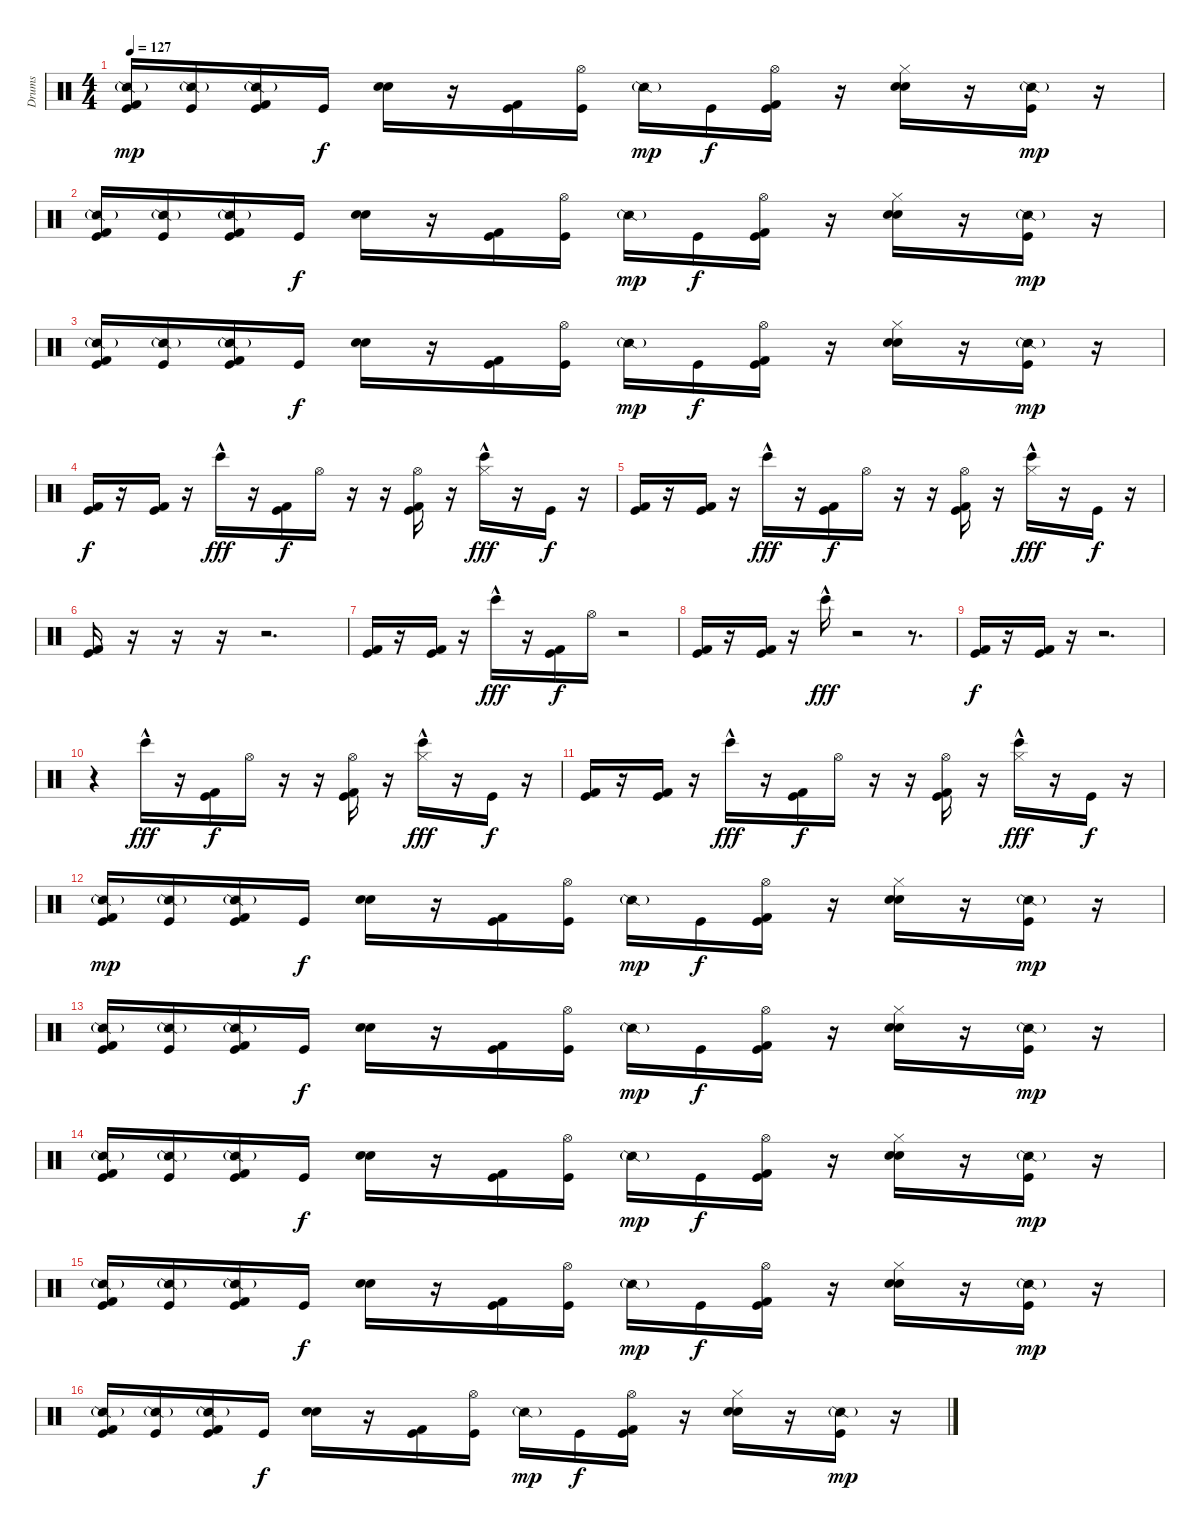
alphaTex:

\track ("Drums" "Drums") {instrument percussion}
\staff {score}
\articulation defaults
\ts (4 4)
\tempo 127
\clef neutral
\ks c
("Snare (side stick) 2"{g} "Kick (hit) 2" "Kick (hit)").16{dy mp} ("Snare (side stick) 2"{g} "Kick (hit)").16 ("Snare (side stick) 2"{g} "Kick (hit) 2" "Kick (hit)").16 "Kick (hit)".16{dy f} ("Snare (hit) 2" "Hand Clap (hit)").16 r.16 ("Kick (hit) 2" "Kick (hit)").16 ("Hi-Hat (open)" "Kick (hit)").16 "Snare (side stick) 2"{g}.16{dy mp} "Kick (hit)".16{dy f} ("Hi-Hat (open)" "Kick (hit) 2" "Kick (hit)").16 r.16 ("Hi-Hat (closed)" "Snare (hit) 2" "Hand Clap (hit)").16 r.16 ("Snare (side stick) 2"{g} "Kick (hit)").16{dy mp} r.16 |
("Snare (side stick) 2"{g} "Kick (hit) 2" "Kick (hit)").16 ("Snare (side stick) 2"{g} "Kick (hit)").16 ("Snare (side stick) 2"{g} "Kick (hit) 2" "Kick (hit)").16 "Kick (hit)".16{dy f} ("Snare (hit) 2" "Hand Clap (hit)").16 r.16 ("Kick (hit) 2" "Kick (hit)").16 ("Hi-Hat (open)" "Kick (hit)").16 "Snare (side stick) 2"{g}.16{dy mp} "Kick (hit)".16{dy f} ("Hi-Hat (open)" "Kick (hit) 2" "Kick (hit)").16 r.16 ("Hi-Hat (closed)" "Snare (hit) 2" "Hand Clap (hit)").16 r.16 ("Snare (side stick) 2"{g} "Kick (hit)").16{dy mp} r.16 |
("Snare (side stick) 2"{g} "Kick (hit) 2" "Kick (hit)").16 ("Snare (side stick) 2"{g} "Kick (hit)").16 ("Snare (side stick) 2"{g} "Kick (hit) 2" "Kick (hit)").16 "Kick (hit)".16{dy f} ("Snare (hit) 2" "Hand Clap (hit)").16 r.16 ("Kick (hit) 2" "Kick (hit)").16 ("Hi-Hat (open)" "Kick (hit)").16 "Snare (side stick) 2"{g}.16{dy mp} "Kick (hit)".16{dy f} ("Hi-Hat (open)" "Kick (hit) 2" "Kick (hit)").16 r.16 ("Hi-Hat (closed)" "Snare (hit) 2" "Hand Clap (hit)").16 r.16 ("Snare (side stick) 2"{g} "Kick (hit)").16{dy mp} r.16 |
("Kick (hit) 2" "Kick (hit)").16{dy f} r.16 ("Kick (hit) 2" "Kick (hit)").16 r.16 "Bongo High (hit)"{hac}.16{dy fff} r.16 ("Kick (hit) 2" "Kick (hit)").16{dy f} "Hi-Hat (open)".16 r.16 r.16 ("Hi-Hat (open)" "Kick (hit) 2" "Kick (hit)").16 r.16 ("Hi-Hat (closed)" "Bongo High (hit)"{hac}).16{dy fff} r.16 "Kick (hit)".16{dy f} r.16 |
("Kick (hit) 2" "Kick (hit)").16 r.16 ("Kick (hit) 2" "Kick (hit)").16 r.16 "Bongo High (hit)"{hac}.16{dy fff} r.16 ("Kick (hit) 2" "Kick (hit)").16{dy f} "Hi-Hat (open)".16 r.16 r.16 ("Hi-Hat (open)" "Kick (hit) 2" "Kick (hit)").16 r.16 ("Hi-Hat (closed)" "Bongo High (hit)"{hac}).16{dy fff} r.16 "Kick (hit)".16{dy f} r.16 |
("Kick (hit)" "Kick (hit) 2").16 r.16 r.16 r.16 r.2{d} |
("Kick (hit) 2" "Kick (hit)").16 r.16 ("Kick (hit) 2" "Kick (hit)").16 r.16 "Bongo High (hit)"{hac}.16{dy fff} r.16 ("Kick (hit) 2" "Kick (hit)").16{dy f} "Hi-Hat (open)".16 r.2 |
("Kick (hit) 2" "Kick (hit)").16 r.16 ("Kick (hit) 2" "Kick (hit)").16 r.16 "Bongo High (hit)"{hac}.16{dy fff} r.2 r.8{d} |
("Kick (hit) 2" "Kick (hit)").16{dy f} r.16 ("Kick (hit) 2" "Kick (hit)").16 r.16 r.2{d} |
r.4 "Bongo High (hit)"{hac}.16{dy fff} r.16 ("Kick (hit) 2" "Kick (hit)").16{dy f} "Hi-Hat (open)".16 r.16 r.16 ("Hi-Hat (open)" "Kick (hit) 2" "Kick (hit)").16 r.16 ("Hi-Hat (closed)" "Bongo High (hit)"{hac}).16{dy fff} r.16 "Kick (hit)".16{dy f} r.16 |
("Kick (hit) 2" "Kick (hit)").16 r.16 ("Kick (hit) 2" "Kick (hit)").16 r.16 "Bongo High (hit)"{hac}.16{dy fff} r.16 ("Kick (hit) 2" "Kick (hit)").16{dy f} "Hi-Hat (open)".16 r.16 r.16 ("Hi-Hat (open)" "Kick (hit) 2" "Kick (hit)").16 r.16 ("Hi-Hat (closed)" "Bongo High (hit)"{hac}).16{dy fff} r.16 "Kick (hit)".16{dy f} r.16 |
("Snare (side stick) 2"{g} "Kick (hit) 2" "Kick (hit)").16{dy mp} ("Snare (side stick) 2"{g} "Kick (hit)").16 ("Snare (side stick) 2"{g} "Kick (hit) 2" "Kick (hit)").16 "Kick (hit)".16{dy f} ("Snare (hit) 2" "Hand Clap (hit)").16 r.16 ("Kick (hit) 2" "Kick (hit)").16 ("Hi-Hat (open)" "Kick (hit)").16 "Snare (side stick) 2"{g}.16{dy mp} "Kick (hit)".16{dy f} ("Hi-Hat (open)" "Kick (hit) 2" "Kick (hit)").16 r.16 ("Hi-Hat (closed)" "Snare (hit) 2" "Hand Clap (hit)").16 r.16 ("Snare (side stick) 2"{g} "Kick (hit)").16{dy mp} r.16 |
("Snare (side stick) 2"{g} "Kick (hit) 2" "Kick (hit)").16 ("Snare (side stick) 2"{g} "Kick (hit)").16 ("Snare (side stick) 2"{g} "Kick (hit) 2" "Kick (hit)").16 "Kick (hit)".16{dy f} ("Snare (hit) 2" "Hand Clap (hit)").16 r.16 ("Kick (hit) 2" "Kick (hit)").16 ("Hi-Hat (open)" "Kick (hit)").16 "Snare (side stick) 2"{g}.16{dy mp} "Kick (hit)".16{dy f} ("Hi-Hat (open)" "Kick (hit) 2" "Kick (hit)").16 r.16 ("Hi-Hat (closed)" "Snare (hit) 2" "Hand Clap (hit)").16 r.16 ("Snare (side stick) 2"{g} "Kick (hit)").16{dy mp} r.16 |
("Snare (side stick) 2"{g} "Kick (hit) 2" "Kick (hit)").16 ("Snare (side stick) 2"{g} "Kick (hit)").16 ("Snare (side stick) 2"{g} "Kick (hit) 2" "Kick (hit)").16 "Kick (hit)".16{dy f} ("Snare (hit) 2" "Hand Clap (hit)").16 r.16 ("Kick (hit) 2" "Kick (hit)").16 ("Hi-Hat (open)" "Kick (hit)").16 "Snare (side stick) 2"{g}.16{dy mp} "Kick (hit)".16{dy f} ("Hi-Hat (open)" "Kick (hit) 2" "Kick (hit)").16 r.16 ("Hi-Hat (closed)" "Snare (hit) 2" "Hand Clap (hit)").16 r.16 ("Snare (side stick) 2"{g} "Kick (hit)").16{dy mp} r.16 |
("Snare (side stick) 2"{g} "Kick (hit) 2" "Kick (hit)").16 ("Snare (side stick) 2"{g} "Kick (hit)").16 ("Snare (side stick) 2"{g} "Kick (hit) 2" "Kick (hit)").16 "Kick (hit)".16{dy f} ("Snare (hit) 2" "Hand Clap (hit)").16 r.16 ("Kick (hit) 2" "Kick (hit)").16 ("Hi-Hat (open)" "Kick (hit)").16 "Snare (side stick) 2"{g}.16{dy mp} "Kick (hit)".16{dy f} ("Hi-Hat (open)" "Kick (hit) 2" "Kick (hit)").16 r.16 ("Hi-Hat (closed)" "Snare (hit) 2" "Hand Clap (hit)").16 r.16 ("Snare (side stick) 2"{g} "Kick (hit)").16{dy mp} r.16 |
("Snare (side stick) 2"{g} "Kick (hit) 2" "Kick (hit)").16 ("Snare (side stick) 2"{g} "Kick (hit)").16 ("Snare (side stick) 2"{g} "Kick (hit) 2" "Kick (hit)").16 "Kick (hit)".16{dy f} ("Snare (hit) 2" "Hand Clap (hit)").16 r.16 ("Kick (hit) 2" "Kick (hit)").16 ("Hi-Hat (open)" "Kick (hit)").16 "Snare (side stick) 2"{g}.16{dy mp} "Kick (hit)".16{dy f} ("Hi-Hat (open)" "Kick (hit) 2" "Kick (hit)").16 r.16 ("Hi-Hat (closed)" "Snare (hit) 2" "Hand Clap (hit)").16 r.16 ("Snare (side stick) 2"{g} "Kick (hit)").16{dy mp} r.16
